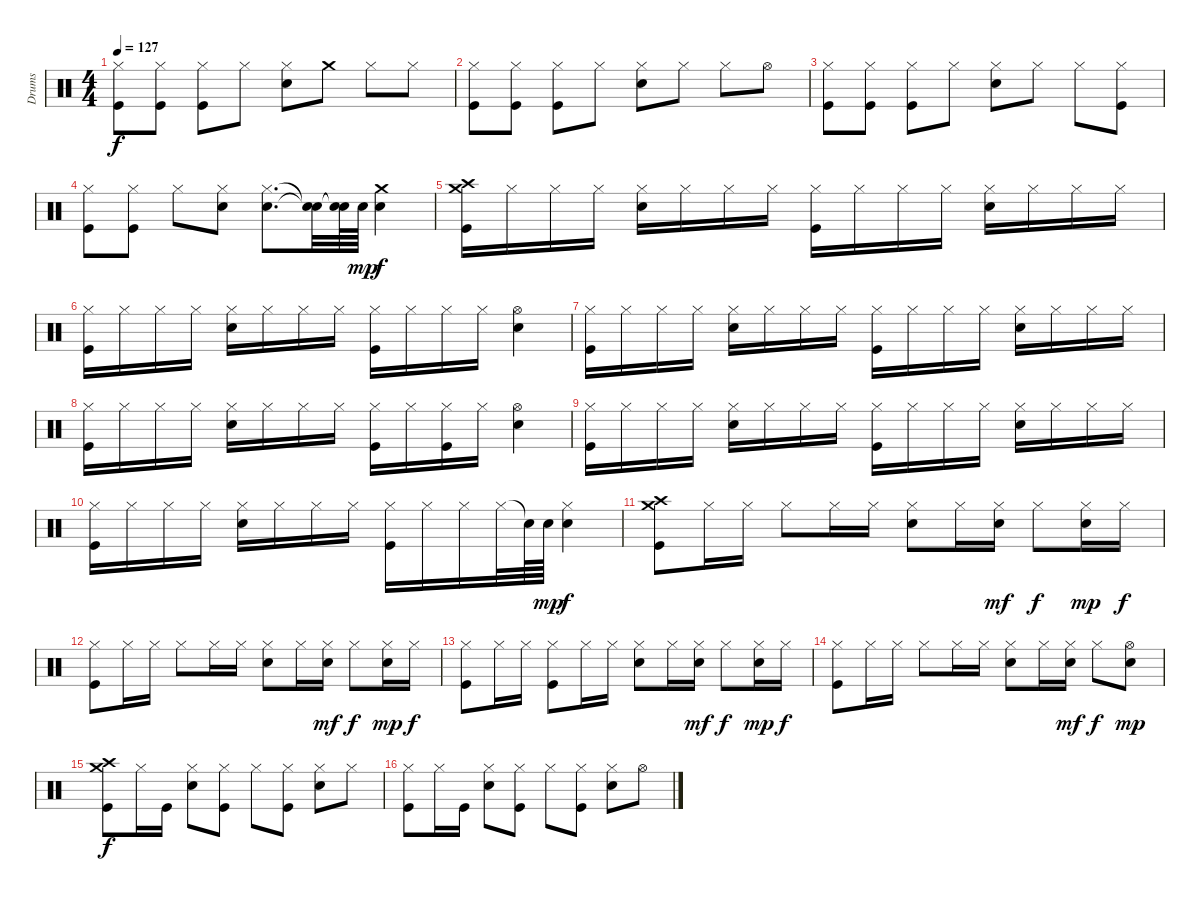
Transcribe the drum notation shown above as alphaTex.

\track ("Drums" "Drums") {instrument percussion}
\staff {score}
\articulation defaults
\ts (4 4)
\tempo 127
\clef neutral
\ks c
("Hi-Hat (closed)" "Kick (hit)").8{dy f} ("Hi-Hat (closed)" "Kick (hit)").8 ("Hi-Hat (closed)" "Kick (hit)").8 "Hi-Hat (closed)".8 ("Electric Snare (hit)" "Hi-Hat (closed)").8 "Crash medium (hit)".8 "Hi-Hat (closed)".8 "Hi-Hat (closed)".8 |
("Hi-Hat (closed)" "Kick (hit)").8 ("Hi-Hat (closed)" "Kick (hit)").8 ("Hi-Hat (closed)" "Kick (hit)").8 "Hi-Hat (closed)".8 ("Electric Snare (hit)" "Hi-Hat (closed)").8 "Hi-Hat (closed)".8 "Hi-Hat (closed)".8 "Hi-Hat (open)".8 |
("Hi-Hat (closed)" "Kick (hit)").8 ("Hi-Hat (closed)" "Kick (hit)").8 ("Hi-Hat (closed)" "Kick (hit)").8 "Hi-Hat (closed)".8 ("Electric Snare (hit)" "Hi-Hat (closed)").8 "Hi-Hat (closed)".8 "Hi-Hat (closed)".8 ("Hi-Hat (closed)" "Kick (hit)").8 |
("Hi-Hat (closed)" "Kick (hit)").8 ("Hi-Hat (closed)" "Kick (hit)").8 "Hi-Hat (closed)".8 ("Electric Snare (hit)" "Hi-Hat (closed)").8 ("Electric Snare (hit)" "Hi-Hat (closed)").8{d} ("Snare (hit)"{t} "Snare (hit)"{t}).32 ("Snare (hit)"{t} "Snare (hit)"{t}).64 "Electric Snare (hit)".64{dy mp} ("Electric Snare (hit)" "Crash medium (hit)").4{dy f} |
("Crash medium (hit)" "Crash high (hit)" "Kick (hit)").16 "Hi-Hat (closed)".16 "Hi-Hat (closed)".16 "Hi-Hat (closed)".16 ("Electric Snare (hit)" "Hi-Hat (closed)").16 "Hi-Hat (closed)".16 "Hi-Hat (closed)".16 "Hi-Hat (closed)".16 ("Hi-Hat (closed)" "Kick (hit)").16 "Hi-Hat (closed)".16 "Hi-Hat (closed)".16 "Hi-Hat (closed)".16 ("Electric Snare (hit)" "Hi-Hat (closed)").16 "Hi-Hat (closed)".16 "Hi-Hat (closed)".16 "Hi-Hat (closed)".16 |
("Hi-Hat (closed)" "Kick (hit)").16 "Hi-Hat (closed)".16 "Hi-Hat (closed)".16 "Hi-Hat (closed)".16 ("Electric Snare (hit)" "Hi-Hat (closed)").16 "Hi-Hat (closed)".16 "Hi-Hat (closed)".16 "Hi-Hat (closed)".16 ("Hi-Hat (closed)" "Kick (hit)").16 "Hi-Hat (closed)".16 "Hi-Hat (closed)".16 "Hi-Hat (closed)".16 ("Electric Snare (hit)" "Hi-Hat (open)").4 |
("Hi-Hat (closed)" "Kick (hit)").16 "Hi-Hat (closed)".16 "Hi-Hat (closed)".16 "Hi-Hat (closed)".16 ("Electric Snare (hit)" "Hi-Hat (closed)").16 "Hi-Hat (closed)".16 "Hi-Hat (closed)".16 "Hi-Hat (closed)".16 ("Hi-Hat (closed)" "Kick (hit)").16 "Hi-Hat (closed)".16 "Hi-Hat (closed)".16 "Hi-Hat (closed)".16 ("Electric Snare (hit)" "Hi-Hat (closed)").16 "Hi-Hat (closed)".16 "Hi-Hat (closed)".16 "Hi-Hat (closed)".16 |
("Hi-Hat (closed)" "Kick (hit)").16 "Hi-Hat (closed)".16 "Hi-Hat (closed)".16 "Hi-Hat (closed)".16 ("Electric Snare (hit)" "Hi-Hat (closed)").16 "Hi-Hat (closed)".16 "Hi-Hat (closed)".16 "Hi-Hat (closed)".16 ("Hi-Hat (closed)" "Kick (hit)").16 "Hi-Hat (closed)".16 ("Hi-Hat (closed)" "Kick (hit)").16 "Hi-Hat (closed)".16 ("Electric Snare (hit)" "Hi-Hat (open)").4 |
("Hi-Hat (closed)" "Kick (hit)").16 "Hi-Hat (closed)".16 "Hi-Hat (closed)".16 "Hi-Hat (closed)".16 ("Electric Snare (hit)" "Hi-Hat (closed)").16 "Hi-Hat (closed)".16 "Hi-Hat (closed)".16 "Hi-Hat (closed)".16 ("Hi-Hat (closed)" "Kick (hit)").16 "Hi-Hat (closed)".16 "Hi-Hat (closed)".16 "Hi-Hat (closed)".16 ("Electric Snare (hit)" "Hi-Hat (closed)").16 "Hi-Hat (closed)".16 "Hi-Hat (closed)".16 "Hi-Hat (closed)".16 |
("Hi-Hat (closed)" "Kick (hit)").16 "Hi-Hat (closed)".16 "Hi-Hat (closed)".16 "Hi-Hat (closed)".16 ("Electric Snare (hit)" "Hi-Hat (closed)").16 "Hi-Hat (closed)".16 "Hi-Hat (closed)".16 "Hi-Hat (closed)".16 ("Hi-Hat (closed)" "Kick (hit)").16 "Hi-Hat (closed)".16 "Hi-Hat (closed)".16 "Hi-Hat (closed)".32 "Snare (hit)"{t}.64 "Electric Snare (hit)".64{dy mp} ("Electric Snare (hit)" "Hi-Hat (closed)").4{dy f} |
("Crash medium (hit)" "Crash high (hit)" "Kick (hit)").8 "Hi-Hat (closed)".16 "Hi-Hat (closed)".16 "Hi-Hat (closed)".8 "Hi-Hat (closed)".16 "Hi-Hat (closed)".16 ("Electric Snare (hit)" "Hi-Hat (closed)").8 "Hi-Hat (closed)".16 ("Electric Snare (hit)" "Hi-Hat (closed)").16{dy mf} "Hi-Hat (closed)".8{dy f} ("Electric Snare (hit)" "Hi-Hat (closed)").16{dy mp} "Hi-Hat (closed)".16{dy f} |
("Hi-Hat (closed)" "Kick (hit)").8 "Hi-Hat (closed)".16 "Hi-Hat (closed)".16 "Hi-Hat (closed)".8 "Hi-Hat (closed)".16 "Hi-Hat (closed)".16 ("Electric Snare (hit)" "Hi-Hat (closed)").8 "Hi-Hat (closed)".16 ("Electric Snare (hit)" "Hi-Hat (closed)").16{dy mf} "Hi-Hat (closed)".8{dy f} ("Electric Snare (hit)" "Hi-Hat (closed)").16{dy mp} "Hi-Hat (closed)".16{dy f} |
("Hi-Hat (closed)" "Kick (hit)").8 "Hi-Hat (closed)".16 "Hi-Hat (closed)".16 ("Hi-Hat (closed)" "Kick (hit)").8 "Hi-Hat (closed)".16 "Hi-Hat (closed)".16 ("Electric Snare (hit)" "Hi-Hat (closed)").8 "Hi-Hat (closed)".16 ("Electric Snare (hit)" "Hi-Hat (closed)").16{dy mf} "Hi-Hat (closed)".8{dy f} ("Electric Snare (hit)" "Hi-Hat (closed)").16{dy mp} "Hi-Hat (closed)".16{dy f} |
("Hi-Hat (closed)" "Kick (hit)").8 "Hi-Hat (closed)".16 "Hi-Hat (closed)".16 "Hi-Hat (closed)".8 "Hi-Hat (closed)".16 "Hi-Hat (closed)".16 ("Electric Snare (hit)" "Hi-Hat (closed)").8 "Hi-Hat (closed)".16 ("Electric Snare (hit)" "Hi-Hat (closed)").16{dy mf} "Hi-Hat (closed)".8{dy f} ("Electric Snare (hit)" "Hi-Hat (open)").8{dy mp} |
("Crash high (hit)" "Crash medium (hit)" "Kick (hit)").8{dy f} "Hi-Hat (closed)".16 "Kick (hit)".16 ("Electric Snare (hit)" "Hi-Hat (closed)").8 ("Hi-Hat (closed)" "Kick (hit)").8 "Hi-Hat (closed)".8 ("Hi-Hat (closed)" "Kick (hit)").8 ("Electric Snare (hit)" "Hi-Hat (closed)").8 "Hi-Hat (closed)".8 |
("Hi-Hat (closed)" "Kick (hit)").8 "Hi-Hat (closed)".16 "Kick (hit)".16 ("Electric Snare (hit)" "Hi-Hat (closed)").8 ("Hi-Hat (closed)" "Kick (hit)").8 "Hi-Hat (closed)".8 ("Hi-Hat (closed)" "Kick (hit)").8 ("Electric Snare (hit)" "Hi-Hat (closed)").8 "Hi-Hat (open)".8
